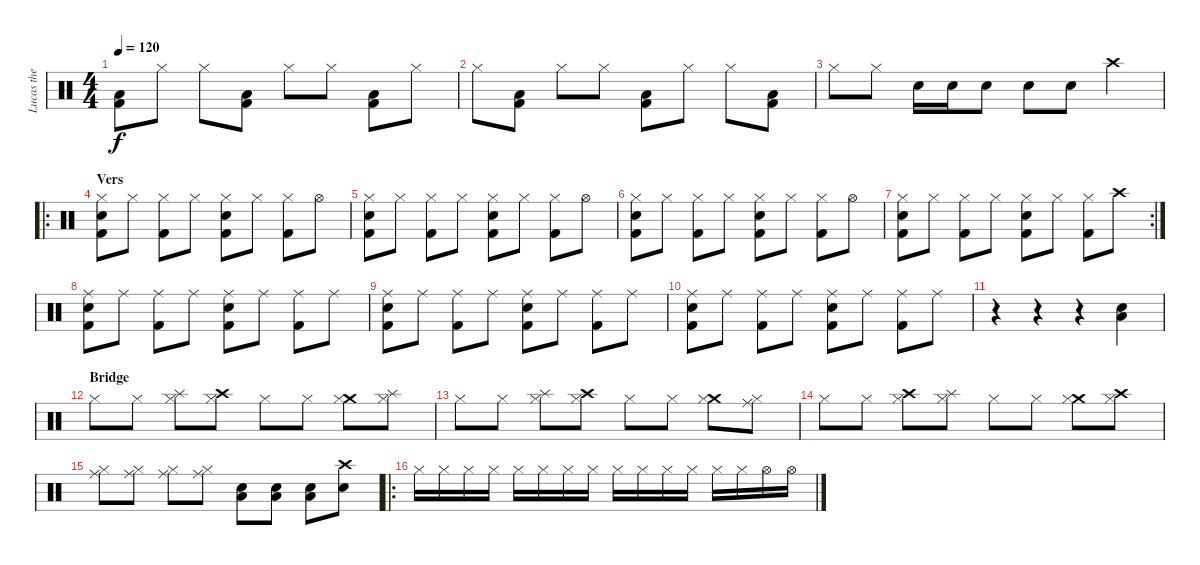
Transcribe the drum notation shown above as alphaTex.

\track ("Lucas the MAN" "Lucas the ") {instrument percussion}
\staff {score}
\articulation defaults
\ts (4 4)
\tempo 120
\clef neutral
\ks c
("Low Floor Tom (hit)" "Kick (hit) 2").8{dy f} "Hi-Hat (closed)".8 "Hi-Hat (closed)".8 ("Low Floor Tom (hit)" "Kick (hit) 2").8 "Hi-Hat (closed)".8 "Hi-Hat (closed)".8 ("Low Floor Tom (hit)" "Kick (hit) 2").8 "Hi-Hat (closed)".8 |
"Hi-Hat (closed)".8 ("Low Floor Tom (hit)" "Kick (hit) 2").8 "Hi-Hat (closed)".8 "Hi-Hat (closed)".8 ("Low Floor Tom (hit)" "Kick (hit) 2").8 "Hi-Hat (closed)".8 "Hi-Hat (closed)".8 ("Low Floor Tom (hit)" "Kick (hit) 2").8 |
"Hi-Hat (closed)".8 "Hi-Hat (closed)".8 "Electric Snare (hit)".16 "Electric Snare (hit)".16 "Electric Snare (hit)".8 "Electric Snare (hit)".8 "Electric Snare (hit)".8 "Crash high (hit)".4 |
\ro
\section ("" "Vers")
("Electric Snare (hit)" "Hi-Hat (closed)" "Kick (hit) 2").8 "Hi-Hat (closed)".8 ("Hi-Hat (closed)" "Kick (hit) 2").8 "Hi-Hat (closed)".8 ("Electric Snare (hit)" "Hi-Hat (closed)" "Kick (hit) 2").8 "Hi-Hat (closed)".8 ("Hi-Hat (closed)" "Kick (hit) 2").8 "Hi-Hat (open)".8 |
("Electric Snare (hit)" "Hi-Hat (closed)" "Kick (hit) 2").8 "Hi-Hat (closed)".8 ("Hi-Hat (closed)" "Kick (hit) 2").8 "Hi-Hat (closed)".8 ("Electric Snare (hit)" "Hi-Hat (closed)" "Kick (hit) 2").8 "Hi-Hat (closed)".8 ("Hi-Hat (closed)" "Kick (hit) 2").8 "Hi-Hat (open)".8 |
("Electric Snare (hit)" "Hi-Hat (closed)" "Kick (hit) 2").8 "Hi-Hat (closed)".8 ("Hi-Hat (closed)" "Kick (hit) 2").8 "Hi-Hat (closed)".8 ("Electric Snare (hit)" "Hi-Hat (closed)" "Kick (hit) 2").8 "Hi-Hat (closed)".8 ("Hi-Hat (closed)" "Kick (hit) 2").8 "Hi-Hat (open)".8 |
\rc 2
("Electric Snare (hit)" "Hi-Hat (closed)" "Kick (hit) 2").8 "Hi-Hat (closed)".8 ("Hi-Hat (closed)" "Kick (hit) 2").8 "Hi-Hat (closed)".8 ("Electric Snare (hit)" "Hi-Hat (closed)" "Kick (hit) 2").8 "Hi-Hat (closed)".8 ("Hi-Hat (closed)" "Kick (hit) 2").8 "Crash high (hit)".8 |
("Electric Snare (hit)" "Ride (middle)" "Kick (hit) 2").8 "Ride (middle)".8 ("Ride (middle)" "Kick (hit) 2").8 "Ride (middle)".8 ("Electric Snare (hit)" "Ride (middle)" "Kick (hit) 2").8 "Ride (middle)".8 ("Ride (middle)" "Kick (hit) 2").8 "Ride (middle)".8 |
("Electric Snare (hit)" "Ride (middle)" "Kick (hit) 2").8 "Ride (middle)".8 ("Ride (middle)" "Kick (hit) 2").8 "Ride (middle)".8 ("Electric Snare (hit)" "Ride (middle)" "Kick (hit) 2").8 "Ride (middle)".8 ("Ride (middle)" "Kick (hit) 2").8 "Ride (middle)".8 |
("Electric Snare (hit)" "Ride (middle)" "Kick (hit) 2").8 "Ride (middle)".8 ("Ride (middle)" "Kick (hit) 2").8 "Ride (middle)".8 ("Electric Snare (hit)" "Ride (middle)" "Kick (hit) 2").8 "Ride (middle)".8 ("Ride (middle)" "Kick (hit) 2").8 "Ride (middle)".8 |
r.4 r.4 r.4 ("Low Floor Tom (hit)" "Electric Snare (hit)").4 |
\section ("" "Bridge")
"Hi-Hat (closed)".8 "Hi-Hat (closed)".8 ("Splash (hit)" "Hi-Hat (closed)").8 ("Crash high (hit)" "Hi-Hat (closed)").8 "Hi-Hat (closed)".8 "Hi-Hat (closed)".8 ("Crash medium (hit)" "Hi-Hat (closed)").8 ("Splash (hit)" "Hi-Hat (closed)").8 |
"Hi-Hat (closed)".8 "Hi-Hat (closed)".8 ("Splash (hit)" "Hi-Hat (closed)").8 ("Crash high (hit)" "Hi-Hat (closed)").8 "Hi-Hat (closed)".8 "Hi-Hat (closed)".8 ("Crash medium (hit)" "Hi-Hat (closed)").8 ("Ride (middle)" "Hi-Hat (closed)").8 |
"Hi-Hat (closed)".8 "Hi-Hat (closed)".8 ("Crash high (hit)" "Hi-Hat (closed)").8 ("Splash (hit)" "Hi-Hat (closed)").8 "Hi-Hat (closed)".8 "Hi-Hat (closed)".8 ("Crash medium (hit)" "Hi-Hat (closed)").8 ("Crash high (hit)" "Hi-Hat (closed)").8 |
("Ride (middle)" "Hi-Hat (closed)").8 ("Ride (middle)" "Hi-Hat (closed)").8 ("Ride (middle)" "Hi-Hat (closed)").8 ("Ride (middle)" "Hi-Hat (closed)").8 ("Low Floor Tom (hit)" "Electric Snare (hit)").8 ("Low Floor Tom (hit)" "Electric Snare (hit)").8 ("Low Floor Tom (hit)" "Electric Snare (hit)").8 ("Crash high (hit)" "Electric Snare (hit)").8 |
\ro "Hi-Hat (closed)".16 "Hi-Hat (closed)".16 "Hi-Hat (closed)".16 "Hi-Hat (closed)".16 "Hi-Hat (closed)".16 "Hi-Hat (closed)".16 "Hi-Hat (closed)".16 "Hi-Hat (closed)".16 "Hi-Hat (closed)".16 "Hi-Hat (closed)".16 "Hi-Hat (closed)".16 "Hi-Hat (closed)".16 "Hi-Hat (closed)".16 "Hi-Hat (closed)".16 "Hi-Hat (open)".16 "Hi-Hat (open)".16
